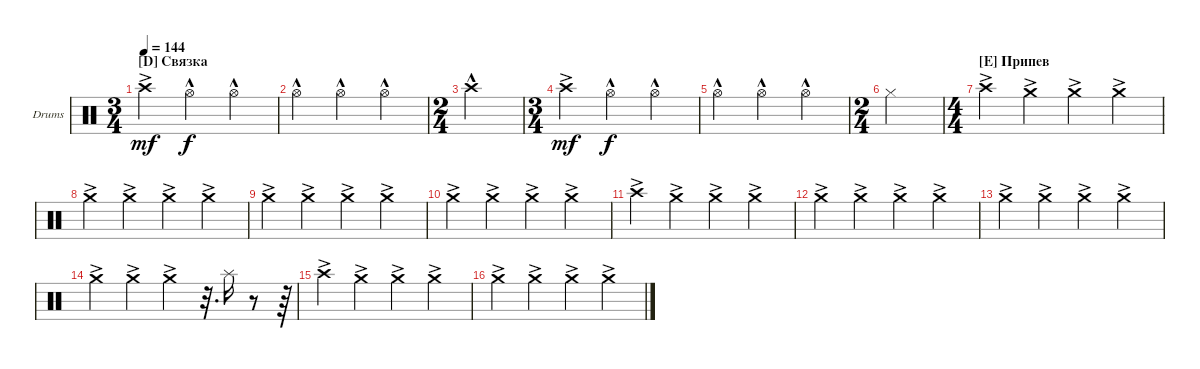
\defaultSystemsLayout 4
\bracketExtendMode groupsimilarinstruments
\firstSystemTrackNameOrientation horizontal
\otherSystemsTrackNameOrientation horizontal
\track ("Cymbals" "Drums") {instrument percussion}
\staff {score}
\articulation defaults
\ts (3 4)
\section ("D" "Связка")
\tempo 144
\clef neutral
\ks c "Crash high (hit)"{ac}.4{dy mf} "Hi-Hat (open)"{hac}.4{dy f} "Hi-Hat (open)"{hac}.4
|
"Hi-Hat (open)"{hac}.4 "Hi-Hat (open)"{hac}.4 "Hi-Hat (open)"{hac}.4 |
\ts (2 4)
"Crash high (hit)"{hac}.2 |
\ts (3 4)
"Crash high (hit)"{ac}.4{dy mf} "Hi-Hat (open)"{hac}.4{dy f} "Hi-Hat (open)"{hac}.4 |
"Hi-Hat (open)"{hac}.4 "Hi-Hat (open)"{hac}.4 "Hi-Hat (open)"{hac}.4 |
\ts (2 4)
"Hi-Hat (closed)".2 |
\ts (4 4)
\section ("E" "Припев")
"Crash high (hit)"{ac}.4 "Crash medium (hit)"{ac}.4 "Crash medium (hit)"{ac}.4 "Crash medium (hit)"{ac}.4 |
"Crash medium (hit)"{ac}.4 "Crash medium (hit)"{ac}.4 "Crash medium (hit)"{ac}.4 "Crash medium (hit)"{ac}.4 |
"Crash medium (hit)"{ac}.4 "Crash medium (hit)"{ac}.4 "Crash medium (hit)"{ac}.4 "Crash medium (hit)"{ac}.4 |
"Crash medium (hit)"{ac}.4 "Crash medium (hit)"{ac}.4 "Crash medium (hit)"{ac}.4 "Crash medium (hit)"{ac}.4 |
"Crash high (hit)"{ac}.4 "Crash medium (hit)"{ac}.4 "Crash medium (hit)"{ac}.4 "Crash medium (hit)"{ac}.4 |
"Crash medium (hit)"{ac}.4 "Crash medium (hit)"{ac}.4 "Crash medium (hit)"{ac}.4 "Crash medium (hit)"{ac}.4 |
"Crash medium (hit)"{ac}.4 "Crash medium (hit)"{ac}.4 "Crash medium (hit)"{ac}.4 "Crash medium (hit)"{ac}.4 |
"Crash medium (hit)"{ac}.4 "Crash medium (hit)"{ac}.4 "Crash medium (hit)"{ac}.4 r.32{d} "Splash (hit)".16 r.8 r.64 |
"Crash high (hit)"{ac}.4 "Crash medium (hit)"{ac}.4 "Crash medium (hit)"{ac}.4 "Crash medium (hit)"{ac}.4 |
"Crash medium (hit)"{ac}.4 "Crash medium (hit)"{ac}.4 "Crash medium (hit)"{ac}.4 "Crash medium (hit)"{ac}.4
